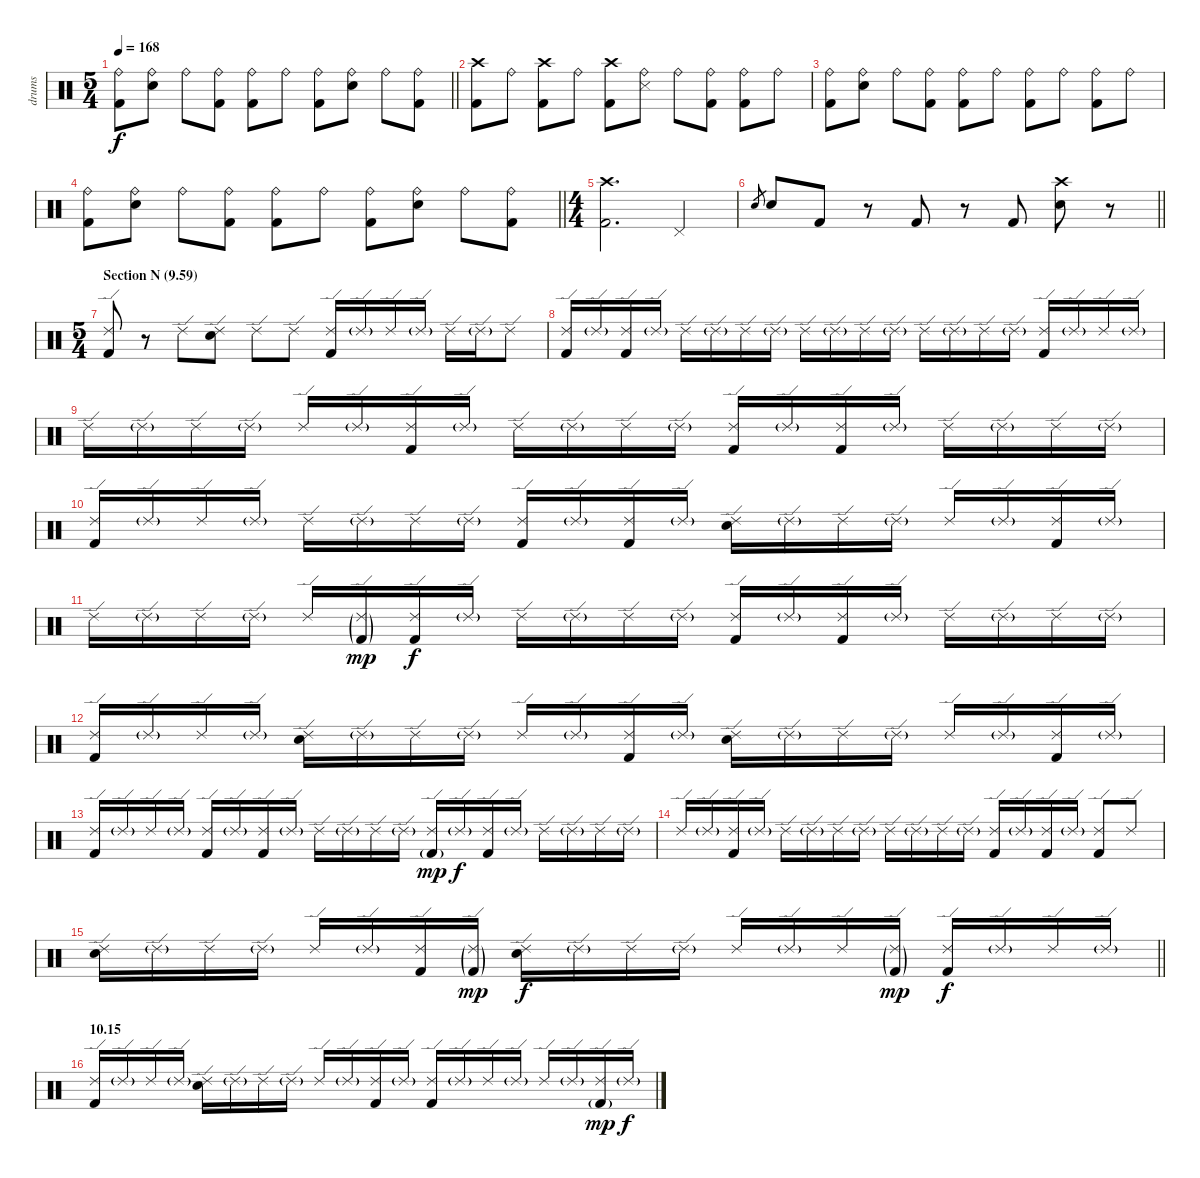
\track ("drums" "drums") {instrument percussion}
\staff {score}
\articulation defaults
\ts (5 4)
\tempo 168
\clef neutral
\barLineRight lightlight
\ks c
("Ride (bell)" "Kick (hit) 2").8{dy f} ("Ride (bell)" "Electric Snare (hit)").8 "Ride (bell)".8 ("Ride (bell)" "Kick (hit) 2").8 ("Ride (bell)" "Kick (hit) 2").8 "Ride (bell)".8 ("Ride (bell)" "Kick (hit) 2").8 ("Ride (bell)" "Electric Snare (hit)").8 "Ride (bell)".8 ("Ride (bell)" "Kick (hit) 2").8 |
("Crash high (hit)" "Kick (hit) 2").8 "Ride (bell)".8 ("Crash high (hit)" "Kick (hit) 2").8 "Ride (bell)".8 ("Crash high (hit)" "Kick (hit) 2").8 ("Ride (bell)" "Snare (side stick) 3").8 "Ride (bell)".8 ("Ride (bell)" "Kick (hit) 2").8 ("Ride (bell)" "Kick (hit) 2").8 "Ride (bell)".8 |
("Ride (bell)" "Kick (hit) 2").8 ("Ride (bell)" "Electric Snare (hit)").8 "Ride (bell)".8 ("Ride (bell)" "Kick (hit) 2").8 ("Ride (bell)" "Kick (hit) 2").8 "Ride (bell)".8 ("Ride (bell)" "Kick (hit) 2").8 "Ride (bell)".8 ("Ride (bell)" "Kick (hit) 2").8 "Ride (bell)".8 |
\barLineRight lightlight
("Ride (bell)" "Kick (hit) 2").8 ("Ride (bell)" "Electric Snare (hit)").8 "Ride (bell)".8 ("Ride (bell)" "Kick (hit) 2").8 ("Ride (bell)" "Kick (hit) 2").8 "Ride (bell)".8 ("Ride (bell)" "Kick (hit) 2").8 ("Ride (bell)" "Electric Snare (hit)").8 "Ride (bell)".8 ("Ride (bell)" "Kick (hit) 2").8 |
\ts (4 4)
("Crash high (hit)" "Kick (hit) 2").2{d} "Pedal Hi-Hat (hit)".4 |
\barLineRight lightlight "Electric Snare (hit)".8{gr} "Electric Snare (hit)".8 "Kick (hit) 2".8
r.8 "Kick (hit) 2".8 r.8 "Kick (hit) 2".8 ("Crash high (hit)" "Electric Snare (hit)").8 r.8 |
\ts (5 4)
\section ("" "Section N (9.59)")
("Ride (edge) 2" "Kick (hit) 2").8 r.8 "Ride (edge) 2".8 ("Ride (edge) 2" "Electric Snare (hit)").8 "Ride (edge) 2".8 "Ride (edge) 2".8 ("Ride (edge) 2" "Kick (hit) 2").16 "Ride (edge) 2"{g}.16 "Ride (edge) 2".16 "Ride (edge) 2"{g}.16 "Ride (edge) 2".16 "Ride (edge) 2"{g}.16 "Ride (edge) 2".8 |
("Ride (edge) 2" "Kick (hit) 2").16 "Ride (edge) 2"{g}.16 ("Ride (edge) 2" "Kick (hit) 2").16 "Ride (edge) 2"{g}.16 "Ride (edge) 2".16 "Ride (edge) 2"{g}.16 "Ride (edge) 2".16 "Ride (edge) 2"{g}.16 "Ride (edge) 2".16 "Ride (edge) 2"{g}.16 "Ride (edge) 2".16 "Ride (edge) 2"{g}.16 "Ride (edge) 2".16 "Ride (edge) 2"{g}.16 "Ride (edge) 2".16 "Ride (edge) 2"{g}.16 ("Ride (edge) 2" "Kick (hit) 2").16 "Ride (edge) 2"{g}.16 "Ride (edge) 2".16 "Ride (edge) 2"{g}.16 |
"Ride (edge) 2".16 "Ride (edge) 2"{g}.16 "Ride (edge) 2".16 "Ride (edge) 2"{g}.16 "Ride (edge) 2".16 "Ride (edge) 2"{g}.16 ("Ride (edge) 2" "Kick (hit) 2").16 "Ride (edge) 2"{g}.16 "Ride (edge) 2".16 "Ride (edge) 2"{g}.16 "Ride (edge) 2".16 "Ride (edge) 2"{g}.16 ("Ride (edge) 2" "Kick (hit) 2").16 "Ride (edge) 2"{g}.16 ("Ride (edge) 2" "Kick (hit) 2").16 "Ride (edge) 2"{g}.16 "Ride (edge) 2".16 "Ride (edge) 2"{g}.16 "Ride (edge) 2".16 "Ride (edge) 2"{g}.16 |
("Ride (edge) 2" "Kick (hit) 2").16 "Ride (edge) 2"{g}.16 "Ride (edge) 2".16 "Ride (edge) 2"{g}.16 "Ride (edge) 2".16 "Ride (edge) 2"{g}.16 "Ride (edge) 2".16 "Ride (edge) 2"{g}.16 ("Ride (edge) 2" "Kick (hit) 2").16 "Ride (edge) 2"{g}.16 ("Ride (edge) 2" "Kick (hit) 2").16 "Ride (edge) 2"{g}.16 ("Ride (edge) 2" "Electric Snare (hit)").16 "Ride (edge) 2"{g}.16 "Ride (edge) 2".16 "Ride (edge) 2"{g}.16 "Ride (edge) 2".16 "Ride (edge) 2"{g}.16 ("Ride (edge) 2" "Kick (hit) 2").16 "Ride (edge) 2"{g}.16 |
"Ride (edge) 2".16 "Ride (edge) 2"{g}.16 "Ride (edge) 2".16 "Ride (edge) 2"{g}.16 "Ride (edge) 2".16 ("Ride (edge) 2"{g} "Kick (hit) 2"{g}).16{dy mp} ("Ride (edge) 2" "Kick (hit) 2").16{dy f} "Ride (edge) 2"{g}.16 "Ride (edge) 2".16 "Ride (edge) 2"{g}.16 "Ride (edge) 2".16 "Ride (edge) 2"{g}.16 ("Ride (edge) 2" "Kick (hit) 2").16 "Ride (edge) 2"{g}.16 ("Ride (edge) 2" "Kick (hit) 2").16 "Ride (edge) 2"{g}.16 "Ride (edge) 2".16 "Ride (edge) 2"{g}.16 "Ride (edge) 2".16 "Ride (edge) 2"{g}.16 |
("Ride (edge) 2" "Kick (hit) 2").16 "Ride (edge) 2"{g}.16 "Ride (edge) 2".16 "Ride (edge) 2"{g}.16 ("Ride (edge) 2" "Electric Snare (hit)").16 "Ride (edge) 2"{g}.16 "Ride (edge) 2".16 "Ride (edge) 2"{g}.16 "Ride (edge) 2".16 "Ride (edge) 2"{g}.16 ("Ride (edge) 2" "Kick (hit) 2").16 "Ride (edge) 2"{g}.16 ("Ride (edge) 2" "Electric Snare (hit)").16 "Ride (edge) 2"{g}.16 "Ride (edge) 2".16 "Ride (edge) 2"{g}.16 "Ride (edge) 2".16 "Ride (edge) 2"{g}.16 ("Ride (edge) 2" "Kick (hit) 2").16 "Ride (edge) 2"{g}.16 |
("Ride (edge) 2" "Kick (hit) 2").16 "Ride (edge) 2"{g}.16 "Ride (edge) 2".16 "Ride (edge) 2"{g}.16 ("Ride (edge) 2" "Kick (hit) 2").16 "Ride (edge) 2"{g}.16 ("Ride (edge) 2" "Kick (hit) 2").16 "Ride (edge) 2"{g}.16 "Ride (edge) 2".16 "Ride (edge) 2"{g}.16 "Ride (edge) 2".16 "Ride (edge) 2"{g}.16 ("Ride (edge) 2" "Kick (hit) 2"{g}).16{dy mp} "Ride (edge) 2"{g}.16{dy f} ("Ride (edge) 2" "Kick (hit) 2").16 "Ride (edge) 2"{g}.16 "Ride (edge) 2".16 "Ride (edge) 2"{g}.16 "Ride (edge) 2".16 "Ride (edge) 2"{g}.16 |
"Ride (edge) 2".16 "Ride (edge) 2"{g}.16 ("Ride (edge) 2" "Kick (hit) 2").16 "Ride (edge) 2"{g}.16 "Ride (edge) 2".16 "Ride (edge) 2"{g}.16 "Ride (edge) 2".16 "Ride (edge) 2"{g}.16 "Ride (edge) 2".16 "Ride (edge) 2"{g}.16 "Ride (edge) 2".16 "Ride (edge) 2"{g}.16 ("Ride (edge) 2" "Kick (hit) 2").16 "Ride (edge) 2"{g}.16 ("Ride (edge) 2" "Kick (hit) 2").16 "Ride (edge) 2"{g}.16 ("Ride (edge) 2" "Kick (hit) 2").8 "Ride (edge) 2".8 |
\barLineRight lightlight
("Ride (edge) 2" "Electric Snare (hit)").16 "Ride (edge) 2"{g}.16 "Ride (edge) 2".16 "Ride (edge) 2"{g}.16 "Ride (edge) 2".16 "Ride (edge) 2"{g}.16 ("Ride (edge) 2" "Kick (hit) 2").16 ("Ride (edge) 2"{g} "Kick (hit) 2"{g}).16{dy mp} ("Ride (edge) 2" "Electric Snare (hit)").16{dy f} "Ride (edge) 2"{g}.16 "Ride (edge) 2".16 "Ride (edge) 2"{g}.16 "Ride (edge) 2".16 "Ride (edge) 2"{g}.16 "Ride (edge) 2".16 ("Ride (edge) 2"{g} "Kick (hit) 2"{g}).16{dy mp} ("Ride (edge) 2" "Kick (hit) 2").16{dy f} "Ride (edge) 2"{g}.16 "Ride (edge) 2".16 "Ride (edge) 2"{g}.16 |
\section ("" "10.15")
("Ride (edge) 2" "Kick (hit) 2").16 "Ride (edge) 2"{g}.16 "Ride (edge) 2".16 "Ride (edge) 2"{g}.16 ("Ride (edge) 2" "Electric Snare (hit)").16 "Ride (edge) 2"{g}.16 "Ride (edge) 2".16 "Ride (edge) 2"{g}.16 "Ride (edge) 2".16 "Ride (edge) 2"{g}.16 ("Ride (edge) 2" "Kick (hit) 2").16 "Ride (edge) 2"{g}.16 ("Ride (edge) 2" "Kick (hit) 2").16 "Ride (edge) 2"{g}.16 "Ride (edge) 2".16 "Ride (edge) 2"{g}.16 "Ride (edge) 2".16 "Ride (edge) 2"{g}.16 ("Ride (edge) 2" "Kick (hit) 2"{g}).16{dy mp} "Ride (edge) 2"{g}.16{dy f}
